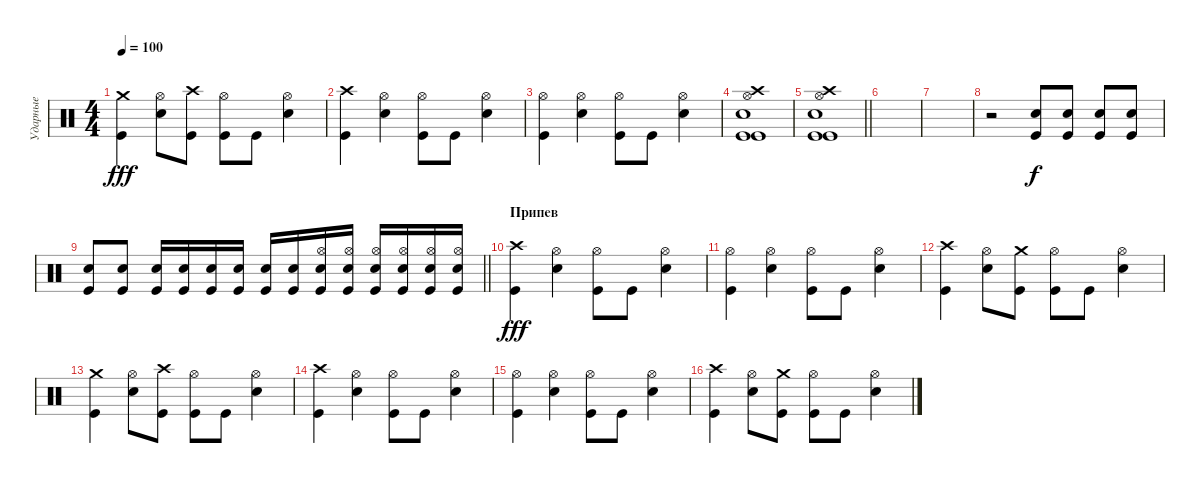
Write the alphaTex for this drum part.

\track ("Ударные" "Ударные") {instrument percussion}
\staff {score}
\articulation defaults
\ts (4 4)
\tempo 100
\clef neutral
\ks c
("Crash medium (hit)" "Kick (hit)").4{dy fff} ("Hi-Hat (open)" "Electric Snare (hit)").8 ("Crash high (hit)" "Kick (hit)").8 ("Hi-Hat (open)" "Kick (hit)").8 "Kick (hit)".8 ("Hi-Hat (open)" "Electric Snare (hit)").4 |
("Crash high (hit)" "Kick (hit)").4 ("Hi-Hat (open)" "Electric Snare (hit)").4 ("Hi-Hat (open)" "Kick (hit)").8 "Kick (hit)".8 ("Hi-Hat (open)" "Electric Snare (hit)").4 |
("Hi-Hat (open)" "Kick (hit)").4 ("Hi-Hat (open)" "Electric Snare (hit)").4 ("Hi-Hat (open)" "Kick (hit)").8 "Kick (hit)".8 ("Hi-Hat (open)" "Electric Snare (hit)").4 |
("Snare (hit) 2" "Hi-Hat (open)" "Kick (hit)" "Crash high (hit)" "Kick (hit)").1 |
\barLineRight lightlight
("Snare (hit) 2" "Hi-Hat (open)" "Kick (hit)" "Crash high (hit)" "Kick (hit)").1 |
\section ("" "")
|
|
r.2 ("Snare (hit) 2" "Kick (hit)").8{dy f} ("Kick (hit)" "Snare (hit) 2").8 ("Snare (hit) 2" "Kick (hit)").8 ("Kick (hit)" "Snare (hit) 2").8 |
\barLineRight lightlight
("Snare (hit) 2" "Kick (hit)").8 ("Kick (hit)" "Snare (hit) 2").8 ("Snare (hit) 2" "Kick (hit)").16 ("Kick (hit)" "Snare (hit) 2").16 ("Snare (hit) 2" "Kick (hit)").16 ("Kick (hit)" "Snare (hit) 2").16 ("Snare (hit) 2" "Kick (hit)").16 ("Kick (hit)" "Snare (hit) 2").16 ("Snare (hit) 2" "Kick (hit)" "Hi-Hat (open)").16 ("Kick (hit)" "Snare (hit) 2" "Hi-Hat (open)").16 ("Snare (hit) 2" "Kick (hit)" "Hi-Hat (open)").16 ("Hi-Hat (open)" "Kick (hit)" "Snare (hit) 2").16 ("Snare (hit) 2" "Kick (hit)" "Hi-Hat (open)").16 ("Hi-Hat (open)" "Kick (hit)" "Snare (hit) 2").16 |
\section ("" "Припев")
("Crash high (hit)" "Kick (hit)").4{dy fff} ("Hi-Hat (open)" "Electric Snare (hit)").4 ("Hi-Hat (open)" "Kick (hit)").8 "Kick (hit)".8 ("Hi-Hat (open)" "Electric Snare (hit)").4 |
("Hi-Hat (open)" "Kick (hit)").4 ("Hi-Hat (open)" "Electric Snare (hit)").4 ("Hi-Hat (open)" "Kick (hit)").8 "Kick (hit)".8 ("Hi-Hat (open)" "Electric Snare (hit)").4 |
("Crash high (hit)" "Kick (hit)").4 ("Hi-Hat (open)" "Electric Snare (hit)").8 ("Crash medium (hit)" "Kick (hit)").8 ("Hi-Hat (open)" "Kick (hit)").8 "Kick (hit)".8 ("Hi-Hat (open)" "Electric Snare (hit)").4 |
("Crash medium (hit)" "Kick (hit)").4 ("Hi-Hat (open)" "Electric Snare (hit)").8 ("Crash high (hit)" "Kick (hit)").8 ("Hi-Hat (open)" "Kick (hit)").8 "Kick (hit)".8 ("Hi-Hat (open)" "Electric Snare (hit)").4 |
("Crash high (hit)" "Kick (hit)").4 ("Hi-Hat (open)" "Electric Snare (hit)").4 ("Hi-Hat (open)" "Kick (hit)").8 "Kick (hit)".8 ("Hi-Hat (open)" "Electric Snare (hit)").4 |
("Hi-Hat (open)" "Kick (hit)").4 ("Hi-Hat (open)" "Electric Snare (hit)").4 ("Hi-Hat (open)" "Kick (hit)").8 "Kick (hit)".8 ("Hi-Hat (open)" "Electric Snare (hit)").4 |
("Crash high (hit)" "Kick (hit)").4 ("Hi-Hat (open)" "Electric Snare (hit)").8 ("Crash medium (hit)" "Kick (hit)").8 ("Hi-Hat (open)" "Kick (hit)").8 "Kick (hit)".8 ("Hi-Hat (open)" "Electric Snare (hit)").4
